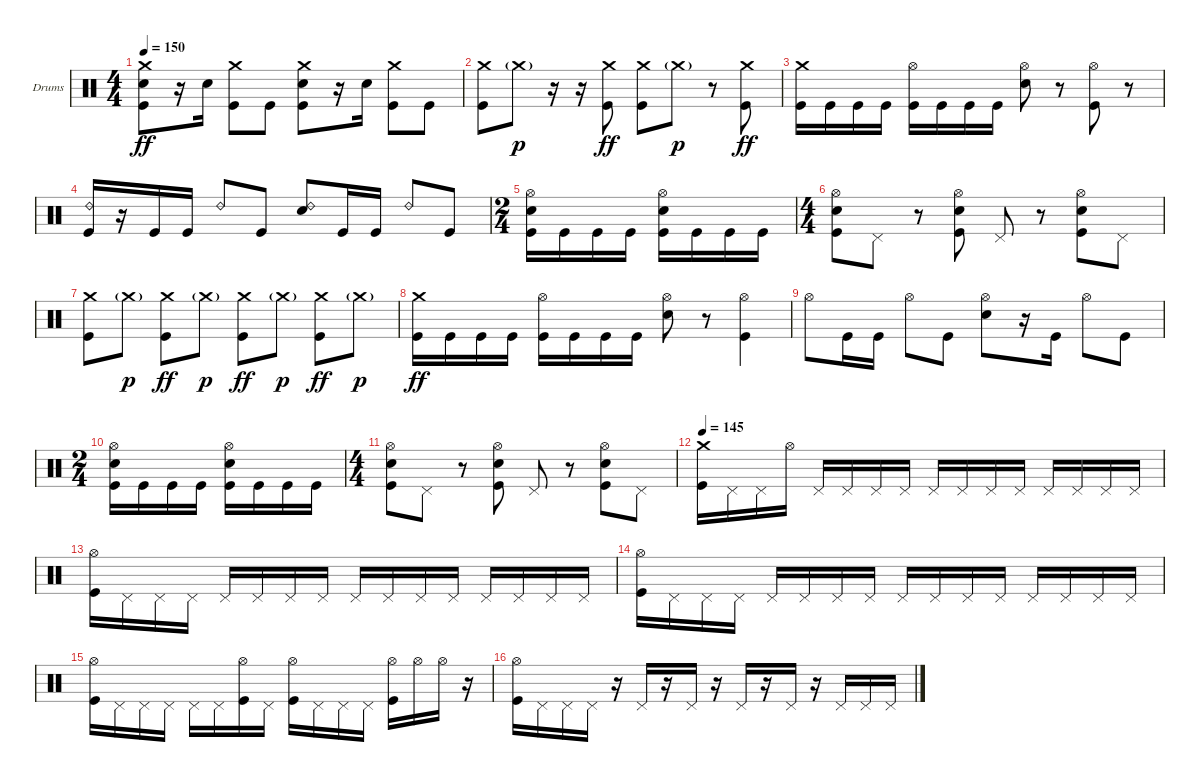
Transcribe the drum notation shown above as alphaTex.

\bracketExtendMode groupsimilarinstruments
\firstSystemTrackNameOrientation horizontal
\otherSystemsTrackNameOrientation horizontal
\track ("Drumkit" "Drums") {instrument percussion}
\staff {score}
\articulation defaults
\ts (4 4)
\tempo 150
\clef neutral
\ks c
("Crash medium (hit)" "Snare (hit) 2" "Kick (hit)").8{dy ff} r.16 "Snare (hit) 2".16 ("Crash medium (hit)" "Kick (hit)").8 "Kick (hit)".8 ("Crash medium (hit)" "Snare (hit) 2" "Kick (hit)").8 r.16 "Snare (hit) 2".16 ("Crash medium (hit)" "Kick (hit)").8 "Kick (hit)".8 |
("Crash medium (hit)" "Kick (hit)").8 "Crash medium (hit)"{g}.8{dy p} r.16 r.16 ("Crash medium (hit)" "Kick (hit)").8{dy ff} ("Crash medium (hit)" "Kick (hit)").8 "Crash medium (hit)"{g}.8{dy p} r.8 ("Crash medium (hit)" "Kick (hit)").8{dy ff} |
("Crash medium (hit)" "Kick (hit)").16 "Kick (hit)".16 "Kick (hit)".16 "Kick (hit)".16 ("Hi-Hat (open)" "Kick (hit)").16 "Kick (hit)".16 "Kick (hit)".16 "Kick (hit)".16 ("Hi-Hat (open)" "Snare (hit) 2").8 r.8 ("Hi-Hat (open)" "Kick (hit)").8 r.8 |
("Ride (bell) 2" "Kick (hit)").16 r.16 "Kick (hit)".16 "Kick (hit)".16 "Ride (bell) 2".8 "Kick (hit)".8 ("Ride (bell) 2" "Snare (hit) 2").8 "Kick (hit)".16 "Kick (hit)".16 "Ride (bell) 2".8 "Kick (hit)".8 |
\ts (2 4)
\beaming (8 2 2)
("Hi-Hat (open)" "Snare (hit) 2" "Kick (hit)").16 "Kick (hit)".16 "Kick (hit)".16 "Kick (hit)".16 ("Hi-Hat (open)" "Snare (hit) 2" "Kick (hit)").16 "Kick (hit)".16 "Kick (hit)".16 "Kick (hit)".16 |
\ts (4 4)
\beaming (8 2 2 2 2)
("Hi-Hat (open)" "Snare (hit) 2" "Kick (hit)").8 "Pedal Hi-Hat (hit)".8 r.8 ("Hi-Hat (open)" "Snare (hit) 2" "Kick (hit)").8 "Pedal Hi-Hat (hit)".8 r.8 ("Hi-Hat (open)" "Snare (hit) 2" "Kick (hit)").8 "Pedal Hi-Hat (hit)".8 |
("Crash medium (hit)" "Kick (hit)").8 "Crash medium (hit)"{g}.8{dy p} ("Crash medium (hit)" "Kick (hit)").8{dy ff} "Crash medium (hit)"{g}.8{dy p} ("Crash medium (hit)" "Kick (hit)").8{dy ff} "Crash medium (hit)"{g}.8{dy p} ("Crash medium (hit)" "Kick (hit)").8{dy ff} "Crash medium (hit)"{g}.8{dy p} |
("Crash medium (hit)" "Kick (hit)").16{dy ff} "Kick (hit)".16 "Kick (hit)".16 "Kick (hit)".16 ("Hi-Hat (open)" "Kick (hit)").16 "Kick (hit)".16 "Kick (hit)".16 "Kick (hit)".16 ("Hi-Hat (open)" "Snare (hit) 2").8 r.8 ("Hi-Hat (open)" "Kick (hit)").4 |
"Hi-Hat (open)".8 "Kick (hit)".16 "Kick (hit)".16 "Hi-Hat (open)".8 "Kick (hit)".8 ("Hi-Hat (open)" "Snare (hit) 2").8 r.16 "Kick (hit)".16 "Hi-Hat (open)".8 "Kick (hit)".8 |
\ts (2 4)
\beaming (8 2 2)
("Hi-Hat (open)" "Snare (hit) 2" "Kick (hit)").16 "Kick (hit)".16 "Kick (hit)".16 "Kick (hit)".16 ("Hi-Hat (open)" "Snare (hit) 2" "Kick (hit)").16 "Kick (hit)".16 "Kick (hit)".16 "Kick (hit)".16 |
\ts (4 4)
\beaming (8 2 2 2 2)
("Hi-Hat (open)" "Snare (hit) 2" "Kick (hit)").8 "Pedal Hi-Hat (hit)".8 r.8 ("Hi-Hat (open)" "Snare (hit) 2" "Kick (hit)").8 "Pedal Hi-Hat (hit)".8 r.8 ("Hi-Hat (open)" "Snare (hit) 2" "Kick (hit)").8 "Pedal Hi-Hat (hit)".8 |
\tempo 145
("Crash medium (hit)" "Kick (hit)").16 "Pedal Hi-Hat (hit)".16 "Pedal Hi-Hat (hit)".16 "Hi-Hat (open)".16 "Pedal Hi-Hat (hit)".16 "Pedal Hi-Hat (hit)".16 "Pedal Hi-Hat (hit)".16 "Pedal Hi-Hat (hit)".16 "Pedal Hi-Hat (hit)".16 "Pedal Hi-Hat (hit)".16 "Pedal Hi-Hat (hit)".16 "Pedal Hi-Hat (hit)".16 "Pedal Hi-Hat (hit)".16 "Pedal Hi-Hat (hit)".16 "Pedal Hi-Hat (hit)".16 "Pedal Hi-Hat (hit)".16 |
("Hi-Hat (open)" "Kick (hit)").16 "Pedal Hi-Hat (hit)".16 "Pedal Hi-Hat (hit)".16 "Pedal Hi-Hat (hit)".16 "Pedal Hi-Hat (hit)".16 "Pedal Hi-Hat (hit)".16 "Pedal Hi-Hat (hit)".16 "Pedal Hi-Hat (hit)".16 "Pedal Hi-Hat (hit)".16 "Pedal Hi-Hat (hit)".16 "Pedal Hi-Hat (hit)".16 "Pedal Hi-Hat (hit)".16 "Pedal Hi-Hat (hit)".16 "Pedal Hi-Hat (hit)".16 "Pedal Hi-Hat (hit)".16 "Pedal Hi-Hat (hit)".16 |
("Hi-Hat (open)" "Kick (hit)").16 "Pedal Hi-Hat (hit)".16 "Pedal Hi-Hat (hit)".16 "Pedal Hi-Hat (hit)".16 "Pedal Hi-Hat (hit)".16 "Pedal Hi-Hat (hit)".16 "Pedal Hi-Hat (hit)".16 "Pedal Hi-Hat (hit)".16 "Pedal Hi-Hat (hit)".16 "Pedal Hi-Hat (hit)".16 "Pedal Hi-Hat (hit)".16 "Pedal Hi-Hat (hit)".16 "Pedal Hi-Hat (hit)".16 "Pedal Hi-Hat (hit)".16 "Pedal Hi-Hat (hit)".16 "Pedal Hi-Hat (hit)".16 |
("Hi-Hat (open)" "Kick (hit)").16 "Pedal Hi-Hat (hit)".16 "Pedal Hi-Hat (hit)".16 "Pedal Hi-Hat (hit)".16 "Pedal Hi-Hat (hit)".16 "Pedal Hi-Hat (hit)".16 ("Hi-Hat (open)" "Kick (hit)").16 "Pedal Hi-Hat (hit)".16 ("Hi-Hat (open)" "Kick (hit)").16 "Pedal Hi-Hat (hit)".16 "Pedal Hi-Hat (hit)".16 "Pedal Hi-Hat (hit)".16 ("Hi-Hat (open)" "Kick (hit)").16 "Hi-Hat (open)".16 "Hi-Hat (open)".16 r.16 |
("Hi-Hat (open)" "Kick (hit)").16 "Pedal Hi-Hat (hit)".16 "Pedal Hi-Hat (hit)".16 "Pedal Hi-Hat (hit)".16 r.16 "Pedal Hi-Hat (hit)".16 r.16 "Pedal Hi-Hat (hit)".16 r.16 "Pedal Hi-Hat (hit)".16 r.16 "Pedal Hi-Hat (hit)".16 r.16 "Pedal Hi-Hat (hit)".16 "Pedal Hi-Hat (hit)".16 "Pedal Hi-Hat (hit)".16
